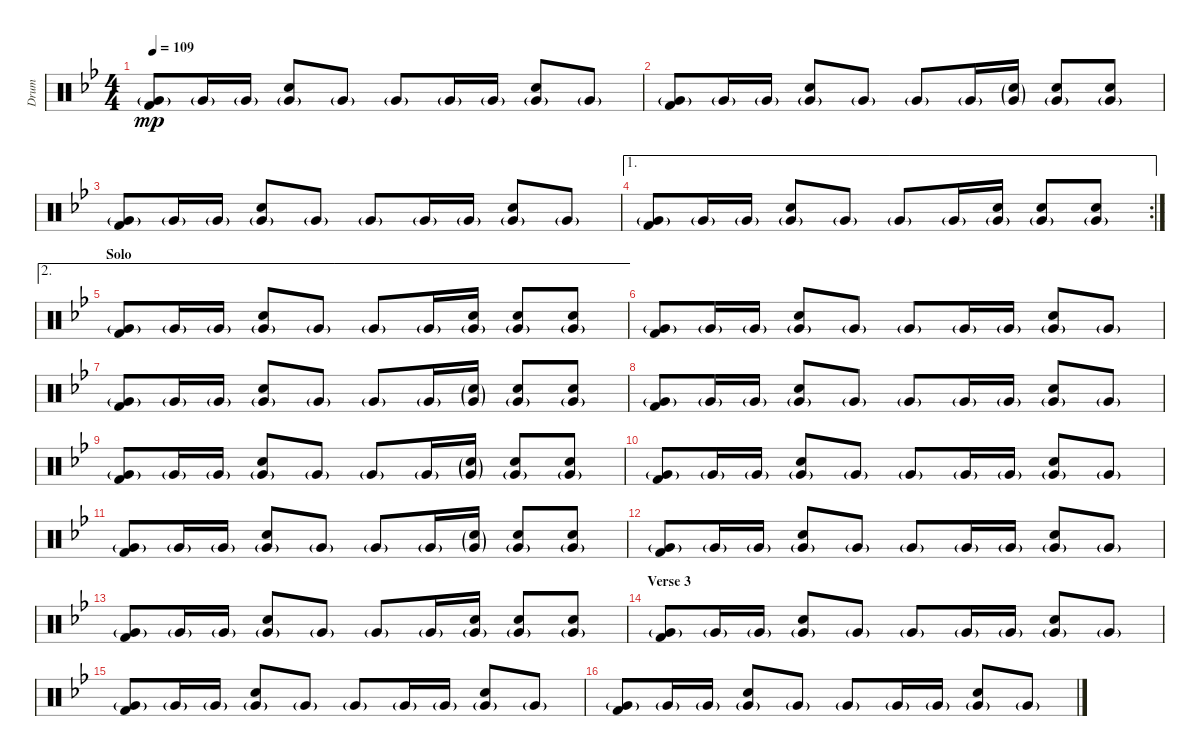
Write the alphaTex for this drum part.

\track ("Drum" "Drum") {instrument percussion}
\staff {score}
\articulation defaults
\ts (4 4)
\tempo 109
\clef neutral
\ks bb
("Very Low Tom (hit)"{g} "Kick (hit) 2").8{dy mp} "Very Low Tom (hit)"{g}.16 "Very Low Tom (hit)"{g}.16 ("Very Low Tom (hit)"{g} "Snare (hit) 2").8 "Very Low Tom (hit)"{g}.8 "Very Low Tom (hit)"{g}.8 "Very Low Tom (hit)"{g}.16 "Very Low Tom (hit)"{g}.16 ("Very Low Tom (hit)"{g} "Snare (hit) 2").8 "Very Low Tom (hit)"{g}.8 |
("Very Low Tom (hit)"{g} "Kick (hit) 2").8 "Very Low Tom (hit)"{g}.16 "Very Low Tom (hit)"{g}.16 ("Very Low Tom (hit)"{g} "Snare (hit) 2").8 "Very Low Tom (hit)"{g}.8 "Very Low Tom (hit)"{g}.8 "Very Low Tom (hit)"{g}.16 ("Very Low Tom (hit)"{g} "Snare (hit) 2"{g}).16 ("Very Low Tom (hit)"{g} "Snare (hit) 2").8 ("Very Low Tom (hit)"{g} "Snare (hit) 2").8 |
("Very Low Tom (hit)"{g} "Kick (hit) 2").8 "Very Low Tom (hit)"{g}.16 "Very Low Tom (hit)"{g}.16 ("Very Low Tom (hit)"{g} "Snare (hit) 2").8 "Very Low Tom (hit)"{g}.8 "Very Low Tom (hit)"{g}.8 "Very Low Tom (hit)"{g}.16 "Very Low Tom (hit)"{g}.16 ("Very Low Tom (hit)"{g} "Snare (hit) 2").8 "Very Low Tom (hit)"{g}.8 |
\ae 1
\rc 2
("Very Low Tom (hit)"{g} "Kick (hit) 2").8 "Very Low Tom (hit)"{g}.16 "Very Low Tom (hit)"{g}.16 ("Very Low Tom (hit)"{g} "Snare (hit) 2").8 "Very Low Tom (hit)"{g}.8 "Very Low Tom (hit)"{g}.8 "Very Low Tom (hit)"{g}.16 ("Very Low Tom (hit)"{g} "Snare (hit) 2").16 ("Very Low Tom (hit)"{g} "Snare (hit) 2").8 ("Very Low Tom (hit)"{g} "Snare (hit) 2").8 |
\ae 2
\section ("" "Solo")
("Very Low Tom (hit)"{g} "Kick (hit) 2").8 "Very Low Tom (hit)"{g}.16 "Very Low Tom (hit)"{g}.16 ("Very Low Tom (hit)"{g} "Snare (hit) 2").8 "Very Low Tom (hit)"{g}.8 "Very Low Tom (hit)"{g}.8 "Very Low Tom (hit)"{g}.16 ("Very Low Tom (hit)"{g} "Snare (hit) 2").16 ("Very Low Tom (hit)"{g} "Snare (hit) 2").8 ("Very Low Tom (hit)"{g} "Snare (hit) 2").8 |
("Very Low Tom (hit)"{g} "Kick (hit) 2").8 "Very Low Tom (hit)"{g}.16 "Very Low Tom (hit)"{g}.16 ("Very Low Tom (hit)"{g} "Snare (hit) 2").8 "Very Low Tom (hit)"{g}.8 "Very Low Tom (hit)"{g}.8 "Very Low Tom (hit)"{g}.16 "Very Low Tom (hit)"{g}.16 ("Very Low Tom (hit)"{g} "Snare (hit) 2").8 "Very Low Tom (hit)"{g}.8 |
("Very Low Tom (hit)"{g} "Kick (hit) 2").8 "Very Low Tom (hit)"{g}.16 "Very Low Tom (hit)"{g}.16 ("Very Low Tom (hit)"{g} "Snare (hit) 2").8 "Very Low Tom (hit)"{g}.8 "Very Low Tom (hit)"{g}.8 "Very Low Tom (hit)"{g}.16 ("Very Low Tom (hit)"{g} "Snare (hit) 2"{g}).16 ("Very Low Tom (hit)"{g} "Snare (hit) 2").8 ("Very Low Tom (hit)"{g} "Snare (hit) 2").8 |
("Very Low Tom (hit)"{g} "Kick (hit) 2").8 "Very Low Tom (hit)"{g}.16 "Very Low Tom (hit)"{g}.16 ("Very Low Tom (hit)"{g} "Snare (hit) 2").8 "Very Low Tom (hit)"{g}.8 "Very Low Tom (hit)"{g}.8 "Very Low Tom (hit)"{g}.16 "Very Low Tom (hit)"{g}.16 ("Very Low Tom (hit)"{g} "Snare (hit) 2").8 "Very Low Tom (hit)"{g}.8 |
("Very Low Tom (hit)"{g} "Kick (hit) 2").8 "Very Low Tom (hit)"{g}.16 "Very Low Tom (hit)"{g}.16 ("Very Low Tom (hit)"{g} "Snare (hit) 2").8 "Very Low Tom (hit)"{g}.8 "Very Low Tom (hit)"{g}.8 "Very Low Tom (hit)"{g}.16 ("Very Low Tom (hit)"{g} "Snare (hit) 2"{g}).16 ("Very Low Tom (hit)"{g} "Snare (hit) 2").8 ("Very Low Tom (hit)"{g} "Snare (hit) 2").8 |
("Very Low Tom (hit)"{g} "Kick (hit) 2").8 "Very Low Tom (hit)"{g}.16 "Very Low Tom (hit)"{g}.16 ("Very Low Tom (hit)"{g} "Snare (hit) 2").8 "Very Low Tom (hit)"{g}.8 "Very Low Tom (hit)"{g}.8 "Very Low Tom (hit)"{g}.16 "Very Low Tom (hit)"{g}.16 ("Very Low Tom (hit)"{g} "Snare (hit) 2").8 "Very Low Tom (hit)"{g}.8 |
("Very Low Tom (hit)"{g} "Kick (hit) 2").8 "Very Low Tom (hit)"{g}.16 "Very Low Tom (hit)"{g}.16 ("Very Low Tom (hit)"{g} "Snare (hit) 2").8 "Very Low Tom (hit)"{g}.8 "Very Low Tom (hit)"{g}.8 "Very Low Tom (hit)"{g}.16 ("Very Low Tom (hit)"{g} "Snare (hit) 2"{g}).16 ("Very Low Tom (hit)"{g} "Snare (hit) 2").8 ("Very Low Tom (hit)"{g} "Snare (hit) 2").8 |
("Very Low Tom (hit)"{g} "Kick (hit) 2").8 "Very Low Tom (hit)"{g}.16 "Very Low Tom (hit)"{g}.16 ("Very Low Tom (hit)"{g} "Snare (hit) 2").8 "Very Low Tom (hit)"{g}.8 "Very Low Tom (hit)"{g}.8 "Very Low Tom (hit)"{g}.16 "Very Low Tom (hit)"{g}.16 ("Very Low Tom (hit)"{g} "Snare (hit) 2").8 "Very Low Tom (hit)"{g}.8 |
("Very Low Tom (hit)"{g} "Kick (hit) 2").8 "Very Low Tom (hit)"{g}.16 "Very Low Tom (hit)"{g}.16 ("Very Low Tom (hit)"{g} "Snare (hit) 2").8 "Very Low Tom (hit)"{g}.8 "Very Low Tom (hit)"{g}.8 "Very Low Tom (hit)"{g}.16 ("Very Low Tom (hit)"{g} "Snare (hit) 2").16 ("Very Low Tom (hit)"{g} "Snare (hit) 2").8 ("Very Low Tom (hit)"{g} "Snare (hit) 2").8 |
\section ("" "Verse 3")
("Very Low Tom (hit)"{g} "Kick (hit) 2").8 "Very Low Tom (hit)"{g}.16 "Very Low Tom (hit)"{g}.16 ("Very Low Tom (hit)"{g} "Snare (hit) 2").8 "Very Low Tom (hit)"{g}.8 "Very Low Tom (hit)"{g}.8 "Very Low Tom (hit)"{g}.16 "Very Low Tom (hit)"{g}.16 ("Very Low Tom (hit)"{g} "Snare (hit) 2").8 "Very Low Tom (hit)"{g}.8 |
("Very Low Tom (hit)"{g} "Kick (hit) 2").8 "Very Low Tom (hit)"{g}.16 "Very Low Tom (hit)"{g}.16 ("Very Low Tom (hit)"{g} "Snare (hit) 2").8 "Very Low Tom (hit)"{g}.8 "Very Low Tom (hit)"{g}.8 "Very Low Tom (hit)"{g}.16 "Very Low Tom (hit)"{g}.16 ("Very Low Tom (hit)"{g} "Snare (hit) 2").8 "Very Low Tom (hit)"{g}.8 |
("Very Low Tom (hit)"{g} "Kick (hit) 2").8 "Very Low Tom (hit)"{g}.16 "Very Low Tom (hit)"{g}.16 ("Very Low Tom (hit)"{g} "Snare (hit) 2").8 "Very Low Tom (hit)"{g}.8 "Very Low Tom (hit)"{g}.8 "Very Low Tom (hit)"{g}.16 "Very Low Tom (hit)"{g}.16 ("Very Low Tom (hit)"{g} "Snare (hit) 2").8 "Very Low Tom (hit)"{g}.8
